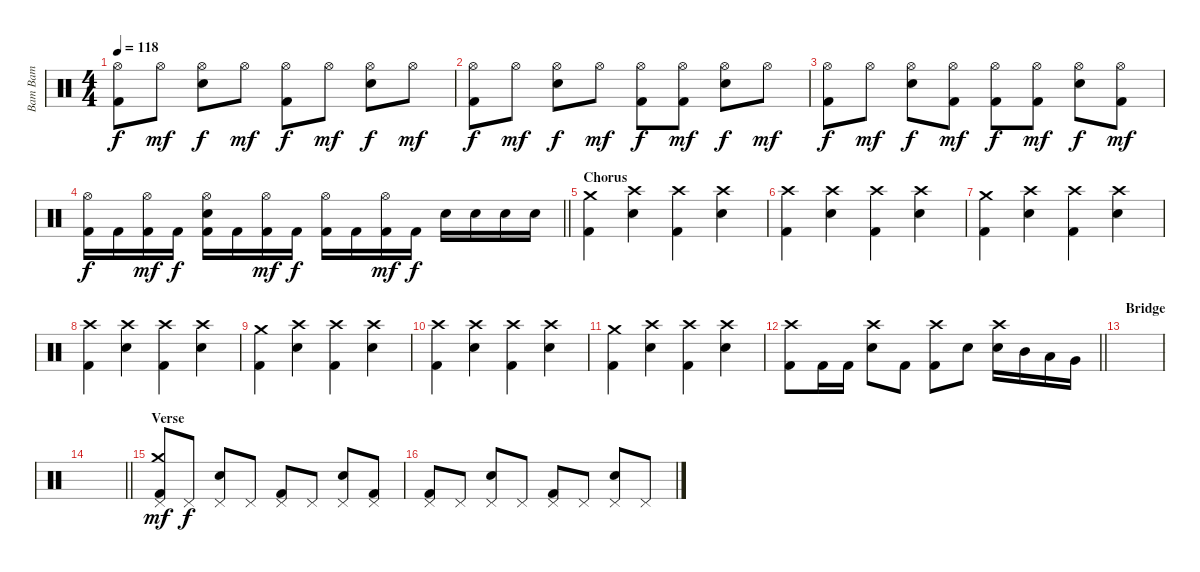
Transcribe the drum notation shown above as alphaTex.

\track ("Bam Bam" "Bam Bam") {instrument percussion}
\staff {score}
\articulation defaults
\ts (4 4)
\tempo 118
\clef neutral
\ks c
("Hi-Hat (open)" "Kick (hit) 2").8{dy f} "Hi-Hat (open)".8{dy mf} ("Hi-Hat (open)" "Electric Snare (hit)").8{dy f} "Hi-Hat (open)".8{dy mf} ("Hi-Hat (open)" "Kick (hit) 2").8{dy f} "Hi-Hat (open)".8{dy mf} ("Hi-Hat (open)" "Electric Snare (hit)").8{dy f} "Hi-Hat (open)".8{dy mf} |
("Hi-Hat (open)" "Kick (hit) 2").8{dy f} "Hi-Hat (open)".8{dy mf} ("Hi-Hat (open)" "Electric Snare (hit)").8{dy f} "Hi-Hat (open)".8{dy mf} ("Hi-Hat (open)" "Kick (hit) 2").8{dy f} ("Hi-Hat (open)" "Kick (hit) 2").8{dy mf} ("Hi-Hat (open)" "Electric Snare (hit)").8{dy f} "Hi-Hat (open)".8{dy mf} |
("Hi-Hat (open)" "Kick (hit) 2").8{dy f} "Hi-Hat (open)".8{dy mf} ("Hi-Hat (open)" "Electric Snare (hit)").8{dy f} ("Hi-Hat (open)" "Kick (hit) 2").8{dy mf} ("Hi-Hat (open)" "Kick (hit) 2").8{dy f} ("Hi-Hat (open)" "Kick (hit) 2").8{dy mf} ("Hi-Hat (open)" "Electric Snare (hit)").8{dy f} ("Hi-Hat (open)" "Kick (hit) 2").8{dy mf} |
\barLineRight lightlight
("Hi-Hat (open)" "Kick (hit) 2").16{dy f} "Kick (hit) 2".16 ("Hi-Hat (open)" "Kick (hit) 2").16{dy mf} "Kick (hit) 2".16{dy f} ("Hi-Hat (open)" "Electric Snare (hit)" "Kick (hit) 2").16 "Kick (hit) 2".16 ("Hi-Hat (open)" "Kick (hit) 2").16{dy mf} "Kick (hit) 2".16{dy f} ("Hi-Hat (open)" "Kick (hit) 2").16 "Kick (hit) 2".16 ("Hi-Hat (open)" "Kick (hit) 2").16{dy mf} "Kick (hit) 2".16{dy f} "Electric Snare (hit)".16 "Electric Snare (hit)".16 "Electric Snare (hit)".16 "Electric Snare (hit)".16 |
\section ("" "Chorus")
("Crash medium (hit)" "Kick (hit) 2").4 ("Crash high (hit)" "Electric Snare (hit)").4 ("Crash high (hit)" "Kick (hit) 2").4 ("Crash high (hit)" "Electric Snare (hit)").4 |
("Crash high (hit)" "Kick (hit) 2").4 ("Crash high (hit)" "Electric Snare (hit)").4 ("Crash high (hit)" "Kick (hit) 2").4 ("Crash high (hit)" "Electric Snare (hit)").4 |
("Crash medium (hit)" "Kick (hit) 2").4 ("Crash high (hit)" "Electric Snare (hit)").4 ("Crash high (hit)" "Kick (hit) 2").4 ("Crash high (hit)" "Electric Snare (hit)").4 |
("Crash high (hit)" "Kick (hit) 2").4 ("Crash high (hit)" "Electric Snare (hit)").4 ("Crash high (hit)" "Kick (hit) 2").4 ("Crash high (hit)" "Electric Snare (hit)").4 |
("Crash medium (hit)" "Kick (hit) 2").4 ("Crash high (hit)" "Electric Snare (hit)").4 ("Crash high (hit)" "Kick (hit) 2").4 ("Crash high (hit)" "Electric Snare (hit)").4 |
("Crash high (hit)" "Kick (hit) 2").4 ("Crash high (hit)" "Electric Snare (hit)").4 ("Crash high (hit)" "Kick (hit) 2").4 ("Crash high (hit)" "Electric Snare (hit)").4 |
("Crash medium (hit)" "Kick (hit) 2").4 ("Crash high (hit)" "Electric Snare (hit)").4 ("Crash high (hit)" "Kick (hit) 2").4 ("Crash high (hit)" "Electric Snare (hit)").4 |
\barLineRight lightlight
("Crash high (hit)" "Kick (hit) 2").8 "Kick (hit) 2".16 "Kick (hit) 2".16 ("Crash high (hit)" "Electric Snare (hit)").8 "Kick (hit) 2".8 ("Crash high (hit)" "Kick (hit) 2").8 "Electric Snare (hit)".8 ("Crash high (hit)" "Electric Snare (hit)").16 "Mid Tom (hit)".16 "Low Tom (hit)".16 "Very Low Tom (hit)".16 |
\section ("" "Bridge")
|
\barLineRight lightlight
|
\section ("" "Verse")
("Crash medium (hit)" "Pedal Hi-Hat (hit)" "Kick (hit) 2").8{dy mf} "Pedal Hi-Hat (hit)".8{dy f} ("Pedal Hi-Hat (hit)" "Electric Snare (hit)").8 "Pedal Hi-Hat (hit)".8 ("Pedal Hi-Hat (hit)" "Kick (hit) 2").8 "Pedal Hi-Hat (hit)".8 ("Pedal Hi-Hat (hit)" "Electric Snare (hit)").8 ("Pedal Hi-Hat (hit)" "Kick (hit) 2").8 |
("Pedal Hi-Hat (hit)" "Kick (hit) 2").8 "Pedal Hi-Hat (hit)".8 ("Pedal Hi-Hat (hit)" "Electric Snare (hit)").8 "Pedal Hi-Hat (hit)".8 ("Pedal Hi-Hat (hit)" "Kick (hit) 2").8 "Pedal Hi-Hat (hit)".8 ("Pedal Hi-Hat (hit)" "Electric Snare (hit)").8 "Pedal Hi-Hat (hit)".8
